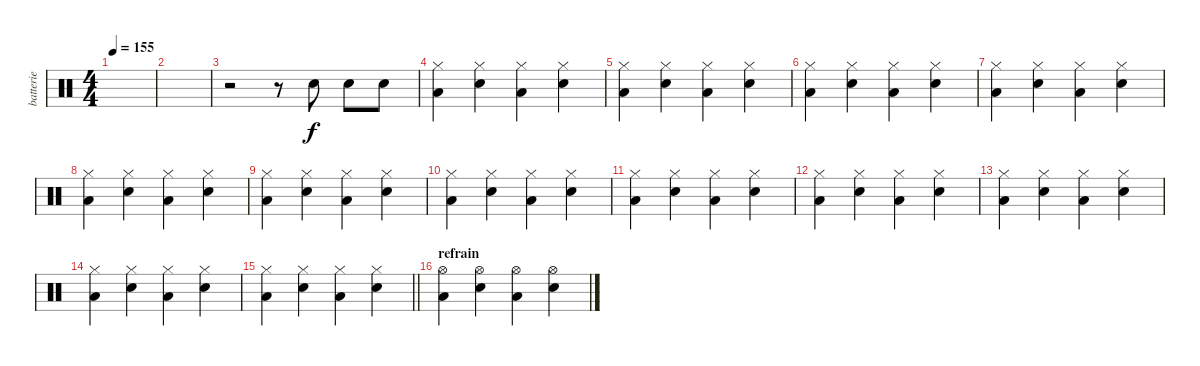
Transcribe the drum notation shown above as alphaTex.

\track ("batterie" "batterie") {instrument percussion}
\staff {score}
\articulation defaults
\ts (4 4)
\tempo 155
\clef neutral
\ks c
|
|
r.2 r.8 "Snare (hit) 2".8 "Snare (hit) 2".8 "Snare (hit) 2".8 |
("Hi-Hat (closed)" "Low Floor Tom (hit)").4 ("Hi-Hat (closed)" "Electric Snare (hit)").4 ("Hi-Hat (closed)" "Low Floor Tom (hit)").4 ("Hi-Hat (closed)" "Electric Snare (hit)").4 |
("Hi-Hat (closed)" "Low Floor Tom (hit)").4 ("Hi-Hat (closed)" "Electric Snare (hit)").4 ("Hi-Hat (closed)" "Low Floor Tom (hit)").4 ("Hi-Hat (closed)" "Electric Snare (hit)").4 |
("Hi-Hat (closed)" "Low Floor Tom (hit)").4 ("Hi-Hat (closed)" "Electric Snare (hit)").4 ("Hi-Hat (closed)" "Low Floor Tom (hit)").4 ("Hi-Hat (closed)" "Electric Snare (hit)").4 |
("Hi-Hat (closed)" "Low Floor Tom (hit)").4 ("Hi-Hat (closed)" "Electric Snare (hit)").4 ("Hi-Hat (closed)" "Low Floor Tom (hit)").4 ("Hi-Hat (closed)" "Electric Snare (hit)").4 |
("Hi-Hat (closed)" "Low Floor Tom (hit)").4 ("Hi-Hat (closed)" "Electric Snare (hit)").4 ("Hi-Hat (closed)" "Low Floor Tom (hit)").4 ("Hi-Hat (closed)" "Electric Snare (hit)").4 |
("Hi-Hat (closed)" "Low Floor Tom (hit)").4 ("Hi-Hat (closed)" "Electric Snare (hit)").4 ("Hi-Hat (closed)" "Low Floor Tom (hit)").4 ("Hi-Hat (closed)" "Electric Snare (hit)").4 |
("Hi-Hat (closed)" "Low Floor Tom (hit)").4 ("Hi-Hat (closed)" "Electric Snare (hit)").4 ("Hi-Hat (closed)" "Low Floor Tom (hit)").4 ("Hi-Hat (closed)" "Electric Snare (hit)").4 |
("Hi-Hat (closed)" "Low Floor Tom (hit)").4 ("Hi-Hat (closed)" "Electric Snare (hit)").4 ("Hi-Hat (closed)" "Low Floor Tom (hit)").4 ("Hi-Hat (closed)" "Electric Snare (hit)").4 |
("Hi-Hat (closed)" "Low Floor Tom (hit)").4 ("Hi-Hat (closed)" "Electric Snare (hit)").4 ("Hi-Hat (closed)" "Low Floor Tom (hit)").4 ("Hi-Hat (closed)" "Electric Snare (hit)").4 |
("Hi-Hat (closed)" "Low Floor Tom (hit)").4 ("Hi-Hat (closed)" "Electric Snare (hit)").4 ("Hi-Hat (closed)" "Low Floor Tom (hit)").4 ("Hi-Hat (closed)" "Electric Snare (hit)").4 |
("Hi-Hat (closed)" "Low Floor Tom (hit)").4 ("Hi-Hat (closed)" "Electric Snare (hit)").4 ("Hi-Hat (closed)" "Low Floor Tom (hit)").4 ("Hi-Hat (closed)" "Electric Snare (hit)").4 |
\barLineRight lightlight
("Hi-Hat (closed)" "Low Floor Tom (hit)").4 ("Hi-Hat (closed)" "Electric Snare (hit)").4 ("Hi-Hat (closed)" "Low Floor Tom (hit)").4 ("Hi-Hat (closed)" "Electric Snare (hit)").4 |
\section ("" "refrain")
("Hi-Hat (open)" "Low Floor Tom (hit)").4 ("Hi-Hat (open)" "Electric Snare (hit)").4 ("Hi-Hat (open)" "Low Floor Tom (hit)").4 ("Hi-Hat (open)" "Electric Snare (hit)").4
